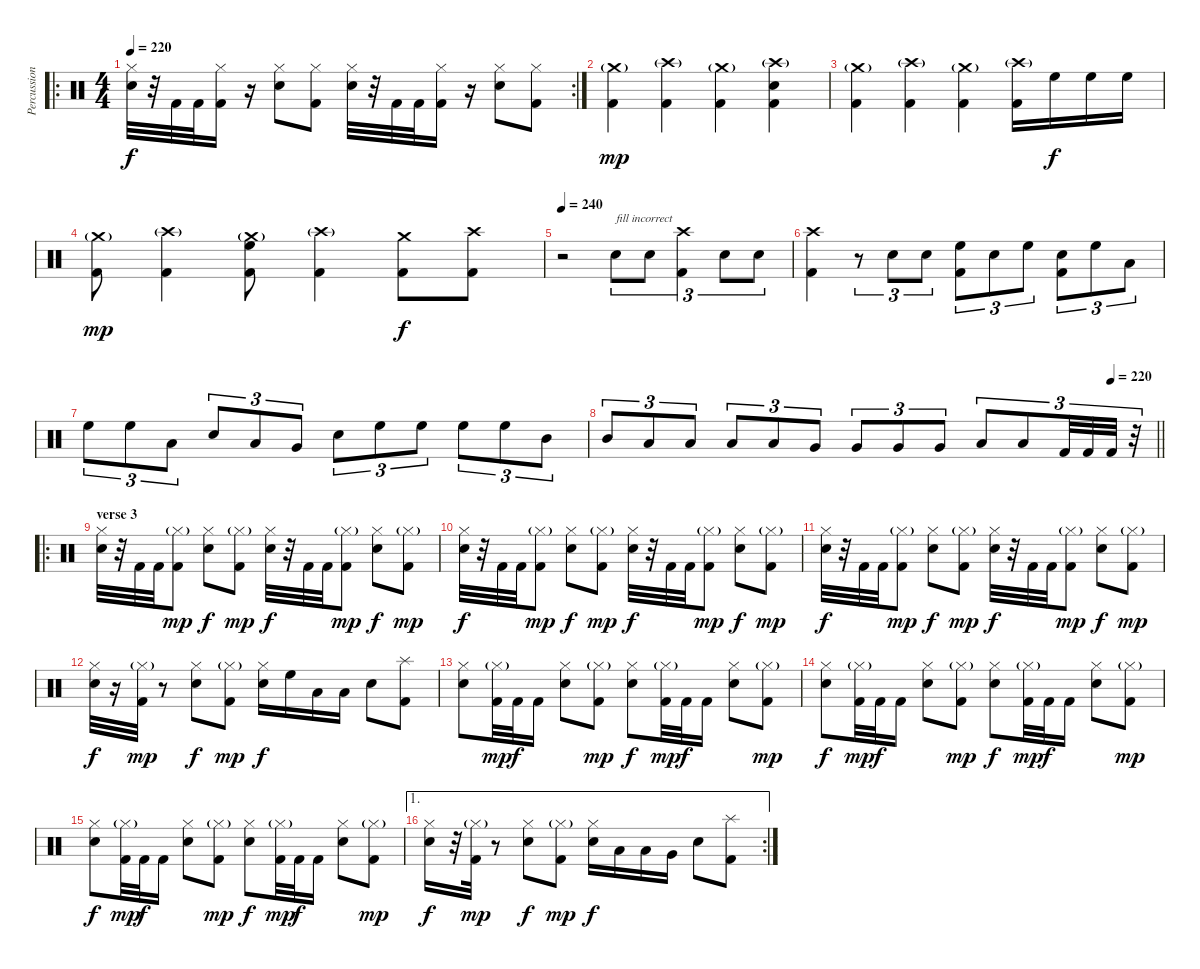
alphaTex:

\track ("Percussion" "Percussion") {instrument percussion}
\staff {score}
\articulation defaults
\ro
\rc 2
\ts (4 4)
\tempo 220
\clef neutral
\ks c
("Hi-Hat (closed)" "Electric Snare (hit)").32{dy f} r.32 "Kick (hit) 2".32 "Kick (hit) 2".32 ("Hi-Hat (closed)" "Kick (hit) 2").16 r.16 ("Hi-Hat (closed)" "Electric Snare (hit)").8 ("Hi-Hat (closed)" "Kick (hit) 2").8 ("Hi-Hat (closed)" "Electric Snare (hit)").32 r.32 "Kick (hit) 2".32 "Kick (hit) 2".32 ("Hi-Hat (closed)" "Kick (hit) 2").16 r.16 ("Hi-Hat (closed)" "Electric Snare (hit)").8 ("Hi-Hat (closed)" "Kick (hit) 2").8 |
("Crash medium (hit)"{g} "Kick (hit) 2").4{dy mp} ("Crash high (hit)"{g} "Kick (hit) 2").4 ("Crash medium (hit)"{g} "Kick (hit) 2").4 ("Crash high (hit)"{g} "Electric Snare (hit)" "Kick (hit) 2").4 |
("Crash medium (hit)"{g} "Kick (hit) 2").4 ("Crash high (hit)"{g} "Kick (hit) 2").4 ("Crash medium (hit)"{g} "Kick (hit) 2").4 ("Crash high (hit)"{g} "Kick (hit) 2").16 "High Floor Tom (hit)".16{dy f} "High Floor Tom (hit)".16 "High Floor Tom (hit)".16 |
("Crash medium (hit)"{g} "Kick (hit) 2").8{dy mp} ("Crash high (hit)"{g} "Kick (hit) 2").4 ("Crash medium (hit)"{g} "High Floor Tom (hit)" "Kick (hit) 2").8 ("Crash high (hit)"{g} "Kick (hit) 2").4 ("Crash medium (hit)" "Kick (hit) 2").8{dy f} ("Crash high (hit)" "Kick (hit) 2").8 |
\tempo 240
r.2 "Electric Snare (hit)".8{tu (3 2) txt "fill incorrect"} "Electric Snare (hit)".8{tu (3 2)} ("Crash high (hit)" "Kick (hit) 2").4{tu (3 2)} "Electric Snare (hit)".8{tu (3 2)} "Electric Snare (hit)".8{tu (3 2)} |
("Crash high (hit)" "Kick (hit) 2").4 r.8{tu (3 2)} "Electric Snare (hit)".8{tu (3 2)} "Electric Snare (hit)".8{tu (3 2)} ("High Floor Tom (hit)" "Kick (hit) 2").8{tu (3 2)} "Electric Snare (hit)".8{tu (3 2)} "High Floor Tom (hit)".8{tu (3 2)} ("Electric Snare (hit)" "Kick (hit) 2").8{tu (3 2)} "High Floor Tom (hit)".8{tu (3 2)} "Low Tom (hit)".8{tu (3 2)} |
"High Floor Tom (hit)".8{tu (3 2)} "High Floor Tom (hit)".8{tu (3 2)} "Low Tom (hit)".8{tu (3 2)} "Electric Snare (hit)".8{tu (3 2)} "Low Tom (hit)".8{tu (3 2)} "Very Low Tom (hit)".8{tu (3 2)} "Electric Snare (hit)".8{tu (3 2)} "High Floor Tom (hit)".8{tu (3 2)} "High Floor Tom (hit)".8{tu (3 2)} "High Floor Tom (hit)".8{tu (3 2)} "High Floor Tom (hit)".8{tu (3 2)} "Mid Tom (hit)".8{tu (3 2)} |
\tempo (220 0.9166666666666666)
\barLineRight lightlight "Mid Tom (hit)".8{tu (3 2)} "Low Tom (hit)".8{tu (3 2)} "Low Tom (hit)".8{tu (3 2)} "Low Tom (hit)".8{tu (3 2)} "Low Tom (hit)".8{tu (3 2)} "Very Low Tom (hit)".8{tu (3 2)} "Very Low Tom (hit)".8{tu (3 2)} "Very Low Tom (hit)".8{tu (3 2)} "Very Low Tom (hit)".8{tu (3 2)} "Low Floor Tom (hit)".8{tu (3 2)} "Low Floor Tom (hit)".8{tu (3 2)} "Kick (hit) 2".32{tu (3 2)} "Kick (hit) 2".32{tu (3 2)} "Kick (hit) 2".32{tu (3 2)}
r.32{tu (3 2)} |
\ro
\section ("" "verse 3")
("Hi-Hat (closed)" "Electric Snare (hit)").32 r.32 "Kick (hit) 2".32 "Kick (hit) 2".32 ("Hi-Hat (closed)"{g} "Kick (hit) 2").8{dy mp} ("Hi-Hat (closed)" "Electric Snare (hit)").8{dy f} ("Hi-Hat (closed)"{g} "Kick (hit) 2").8{dy mp} ("Hi-Hat (closed)" "Electric Snare (hit)").32{dy f} r.32 "Kick (hit) 2".32 "Kick (hit) 2".32 ("Hi-Hat (closed)"{g} "Kick (hit) 2").8{dy mp} ("Hi-Hat (closed)" "Electric Snare (hit)").8{dy f} ("Hi-Hat (closed)"{g} "Kick (hit) 2").8{dy mp} |
("Hi-Hat (closed)" "Electric Snare (hit)").32{dy f} r.32 "Kick (hit) 2".32 "Kick (hit) 2".32 ("Hi-Hat (closed)"{g} "Kick (hit) 2").8{dy mp} ("Hi-Hat (closed)" "Electric Snare (hit)").8{dy f} ("Hi-Hat (closed)"{g} "Kick (hit) 2").8{dy mp} ("Hi-Hat (closed)" "Electric Snare (hit)").32{dy f} r.32 "Kick (hit) 2".32 "Kick (hit) 2".32 ("Hi-Hat (closed)"{g} "Kick (hit) 2").8{dy mp} ("Hi-Hat (closed)" "Electric Snare (hit)").8{dy f} ("Hi-Hat (closed)"{g} "Kick (hit) 2").8{dy mp} |
("Hi-Hat (closed)" "Electric Snare (hit)").32{dy f} r.32 "Kick (hit) 2".32 "Kick (hit) 2".32 ("Hi-Hat (closed)"{g} "Kick (hit) 2").8{dy mp} ("Hi-Hat (closed)" "Electric Snare (hit)").8{dy f} ("Hi-Hat (closed)"{g} "Kick (hit) 2").8{dy mp} ("Hi-Hat (closed)" "Electric Snare (hit)").32{dy f} r.32 "Kick (hit) 2".32 "Kick (hit) 2".32 ("Hi-Hat (closed)"{g} "Kick (hit) 2").8{dy mp} ("Hi-Hat (closed)" "Electric Snare (hit)").8{dy f} ("Hi-Hat (closed)"{g} "Kick (hit) 2").8{dy mp} |
("Hi-Hat (closed)" "Electric Snare (hit)").32{dy f} r.16 ("Hi-Hat (closed)"{g} "Kick (hit) 2").32{dy mp} r.8 ("Hi-Hat (closed)" "Electric Snare (hit)").8{dy f} ("Hi-Hat (closed)"{g} "Kick (hit) 2").8{dy mp} ("Hi-Hat (closed)" "Electric Snare (hit)").16{dy f} "High Floor Tom (hit)".16 "Low Tom (hit)".16 "Low Tom (hit)".16 "Electric Snare (hit)".8 ("Splash (hit)" "Kick (hit) 2").8 |
("Hi-Hat (closed)" "Electric Snare (hit)").8 ("Hi-Hat (closed)"{g} "Kick (hit) 2").32{dy mp} "Kick (hit) 2".32{dy f} "Kick (hit) 2".16 ("Hi-Hat (closed)" "Electric Snare (hit)").8 ("Hi-Hat (closed)"{g} "Kick (hit) 2").8{dy mp} ("Hi-Hat (closed)" "Electric Snare (hit)").8{dy f} ("Hi-Hat (closed)"{g} "Kick (hit) 2").32{dy mp} "Kick (hit) 2".32{dy f} "Kick (hit) 2".16 ("Hi-Hat (closed)" "Electric Snare (hit)").8 ("Hi-Hat (closed)"{g} "Kick (hit) 2").8{dy mp} |
("Hi-Hat (closed)" "Electric Snare (hit)").8{dy f} ("Hi-Hat (closed)"{g} "Kick (hit) 2").32{dy mp} "Kick (hit) 2".32{dy f} "Kick (hit) 2".16 ("Hi-Hat (closed)" "Electric Snare (hit)").8 ("Hi-Hat (closed)"{g} "Kick (hit) 2").8{dy mp} ("Hi-Hat (closed)" "Electric Snare (hit)").8{dy f} ("Hi-Hat (closed)"{g} "Kick (hit) 2").32{dy mp} "Kick (hit) 2".32{dy f} "Kick (hit) 2".16 ("Hi-Hat (closed)" "Electric Snare (hit)").8 ("Hi-Hat (closed)"{g} "Kick (hit) 2").8{dy mp} |
("Hi-Hat (closed)" "Electric Snare (hit)").8{dy f} ("Hi-Hat (closed)"{g} "Kick (hit) 2").32{dy mp} "Kick (hit) 2".32{dy f} "Kick (hit) 2".16 ("Hi-Hat (closed)" "Electric Snare (hit)").8 ("Hi-Hat (closed)"{g} "Kick (hit) 2").8{dy mp} ("Hi-Hat (closed)" "Electric Snare (hit)").8{dy f} ("Hi-Hat (closed)"{g} "Kick (hit) 2").32{dy mp} "Kick (hit) 2".32{dy f} "Kick (hit) 2".16 ("Hi-Hat (closed)" "Electric Snare (hit)").8 ("Hi-Hat (closed)"{g} "Kick (hit) 2").8{dy mp} |
\ae 1
\rc 2
("Hi-Hat (closed)" "Electric Snare (hit)").16{dy f} r.32 ("Hi-Hat (closed)"{g} "Kick (hit) 2").32{dy mp} r.8 ("Hi-Hat (closed)" "Electric Snare (hit)").8{dy f} ("Hi-Hat (closed)"{g} "Kick (hit) 2").8{dy mp} ("Hi-Hat (closed)" "Electric Snare (hit)").16{dy f} "Low Tom (hit)".16 "Low Tom (hit)".16 "Very Low Tom (hit)".16 "Electric Snare (hit)".8 ("Splash (hit)" "Kick (hit) 2").8
